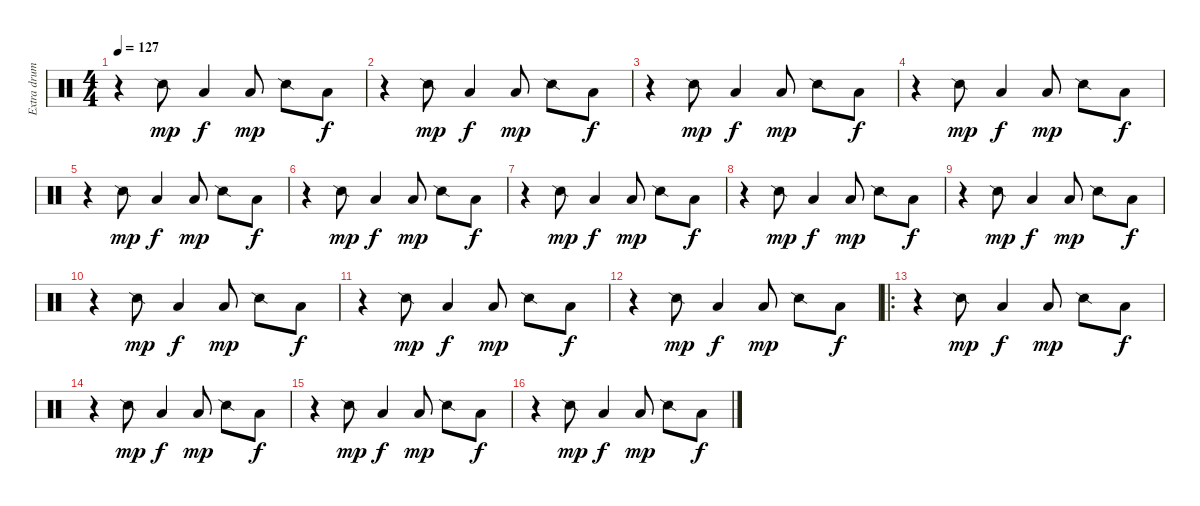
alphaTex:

\track ("Extra drums" "Extra drum") {instrument percussion}
\staff {score}
\articulation defaults
\ts (4 4)
\tempo 127
\clef neutral
\ks c
r.4{dy f} "Snare (side stick) 2".8{dy mp} "Low Tom (hit)".4{dy f} "Low Tom (hit)".8{dy mp} "Snare (side stick) 2".8 "Low Tom (hit)".8{dy f} |
r.4 "Snare (side stick) 2".8{dy mp} "Low Tom (hit)".4{dy f} "Low Tom (hit)".8{dy mp} "Snare (side stick) 2".8 "Low Tom (hit)".8{dy f} |
r.4 "Snare (side stick) 2".8{dy mp} "Low Tom (hit)".4{dy f} "Low Tom (hit)".8{dy mp} "Snare (side stick) 2".8 "Low Tom (hit)".8{dy f} |
r.4 "Snare (side stick) 2".8{dy mp} "Low Tom (hit)".4{dy f} "Low Tom (hit)".8{dy mp} "Snare (side stick) 2".8 "Low Tom (hit)".8{dy f} |
r.4 "Snare (side stick) 2".8{dy mp} "Low Tom (hit)".4{dy f} "Low Tom (hit)".8{dy mp} "Snare (side stick) 2".8 "Low Tom (hit)".8{dy f} |
r.4 "Snare (side stick) 2".8{dy mp} "Low Tom (hit)".4{dy f} "Low Tom (hit)".8{dy mp} "Snare (side stick) 2".8 "Low Tom (hit)".8{dy f} |
r.4 "Snare (side stick) 2".8{dy mp} "Low Tom (hit)".4{dy f} "Low Tom (hit)".8{dy mp} "Snare (side stick) 2".8 "Low Tom (hit)".8{dy f} |
r.4 "Snare (side stick) 2".8{dy mp} "Low Tom (hit)".4{dy f} "Low Tom (hit)".8{dy mp} "Snare (side stick) 2".8 "Low Tom (hit)".8{dy f} |
r.4 "Snare (side stick) 2".8{dy mp} "Low Tom (hit)".4{dy f} "Low Tom (hit)".8{dy mp} "Snare (side stick) 2".8 "Low Tom (hit)".8{dy f} |
r.4 "Snare (side stick) 2".8{dy mp} "Low Tom (hit)".4{dy f} "Low Tom (hit)".8{dy mp} "Snare (side stick) 2".8 "Low Tom (hit)".8{dy f} |
r.4 "Snare (side stick) 2".8{dy mp} "Low Tom (hit)".4{dy f} "Low Tom (hit)".8{dy mp} "Snare (side stick) 2".8 "Low Tom (hit)".8{dy f} |
r.4 "Snare (side stick) 2".8{dy mp} "Low Tom (hit)".4{dy f} "Low Tom (hit)".8{dy mp} "Snare (side stick) 2".8 "Low Tom (hit)".8{dy f} |
\ro
r.4 "Snare (side stick) 2".8{dy mp} "Low Tom (hit)".4{dy f} "Low Tom (hit)".8{dy mp} "Snare (side stick) 2".8 "Low Tom (hit)".8{dy f} |
r.4 "Snare (side stick) 2".8{dy mp} "Low Tom (hit)".4{dy f} "Low Tom (hit)".8{dy mp} "Snare (side stick) 2".8 "Low Tom (hit)".8{dy f} |
r.4 "Snare (side stick) 2".8{dy mp} "Low Tom (hit)".4{dy f} "Low Tom (hit)".8{dy mp} "Snare (side stick) 2".8 "Low Tom (hit)".8{dy f} |
r.4 "Snare (side stick) 2".8{dy mp} "Low Tom (hit)".4{dy f} "Low Tom (hit)".8{dy mp} "Snare (side stick) 2".8 "Low Tom (hit)".8{dy f}
